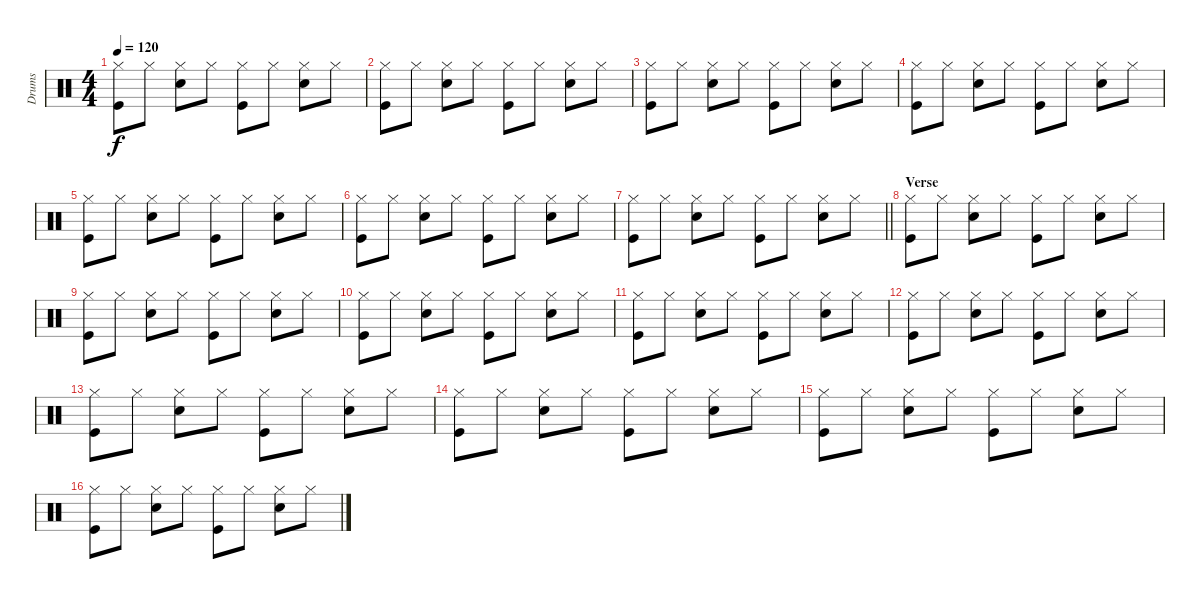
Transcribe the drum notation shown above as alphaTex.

\track ("Drums" "Drums") {instrument percussion}
\staff {score}
\articulation defaults
\ts (4 4)
\tempo 120
\clef neutral
\ks c
("Hi-Hat (closed)" "Kick (hit)").8{dy f} "Hi-Hat (closed)".8 ("Hi-Hat (closed)" "Snare (hit) 2").8 "Hi-Hat (closed)".8 ("Hi-Hat (closed)" "Kick (hit)").8 "Hi-Hat (closed)".8 ("Hi-Hat (closed)" "Snare (hit) 2").8 "Hi-Hat (closed)".8 |
("Hi-Hat (closed)" "Kick (hit)").8 "Hi-Hat (closed)".8 ("Hi-Hat (closed)" "Snare (hit) 2").8 "Hi-Hat (closed)".8 ("Hi-Hat (closed)" "Kick (hit)").8 "Hi-Hat (closed)".8 ("Hi-Hat (closed)" "Snare (hit) 2").8 "Hi-Hat (closed)".8 |
("Hi-Hat (closed)" "Kick (hit)").8 "Hi-Hat (closed)".8 ("Hi-Hat (closed)" "Snare (hit) 2").8 "Hi-Hat (closed)".8 ("Hi-Hat (closed)" "Kick (hit)").8 "Hi-Hat (closed)".8 ("Hi-Hat (closed)" "Snare (hit) 2").8 "Hi-Hat (closed)".8 |
("Hi-Hat (closed)" "Kick (hit)").8 "Hi-Hat (closed)".8 ("Hi-Hat (closed)" "Snare (hit) 2").8 "Hi-Hat (closed)".8 ("Hi-Hat (closed)" "Kick (hit)").8 "Hi-Hat (closed)".8 ("Hi-Hat (closed)" "Snare (hit) 2").8 "Hi-Hat (closed)".8 |
("Hi-Hat (closed)" "Kick (hit)").8 "Hi-Hat (closed)".8 ("Hi-Hat (closed)" "Snare (hit) 2").8 "Hi-Hat (closed)".8 ("Hi-Hat (closed)" "Kick (hit)").8 "Hi-Hat (closed)".8 ("Hi-Hat (closed)" "Snare (hit) 2").8 "Hi-Hat (closed)".8 |
("Hi-Hat (closed)" "Kick (hit)").8 "Hi-Hat (closed)".8 ("Hi-Hat (closed)" "Snare (hit) 2").8 "Hi-Hat (closed)".8 ("Hi-Hat (closed)" "Kick (hit)").8 "Hi-Hat (closed)".8 ("Hi-Hat (closed)" "Snare (hit) 2").8 "Hi-Hat (closed)".8 |
\barLineRight lightlight
("Hi-Hat (closed)" "Kick (hit)").8 "Hi-Hat (closed)".8 ("Hi-Hat (closed)" "Snare (hit) 2").8 "Hi-Hat (closed)".8 ("Hi-Hat (closed)" "Kick (hit)").8 "Hi-Hat (closed)".8 ("Hi-Hat (closed)" "Snare (hit) 2").8 "Hi-Hat (closed)".8 |
\section ("" "Verse")
("Hi-Hat (closed)" "Kick (hit)").8 "Hi-Hat (closed)".8 ("Hi-Hat (closed)" "Snare (hit) 2").8 "Hi-Hat (closed)".8 ("Hi-Hat (closed)" "Kick (hit)").8 "Hi-Hat (closed)".8 ("Hi-Hat (closed)" "Snare (hit) 2").8 "Hi-Hat (closed)".8 |
("Hi-Hat (closed)" "Kick (hit)").8 "Hi-Hat (closed)".8 ("Hi-Hat (closed)" "Snare (hit) 2").8 "Hi-Hat (closed)".8 ("Hi-Hat (closed)" "Kick (hit)").8 "Hi-Hat (closed)".8 ("Hi-Hat (closed)" "Snare (hit) 2").8 "Hi-Hat (closed)".8 |
("Hi-Hat (closed)" "Kick (hit)").8 "Hi-Hat (closed)".8 ("Hi-Hat (closed)" "Snare (hit) 2").8 "Hi-Hat (closed)".8 ("Hi-Hat (closed)" "Kick (hit)").8 "Hi-Hat (closed)".8 ("Hi-Hat (closed)" "Snare (hit) 2").8 "Hi-Hat (closed)".8 |
("Hi-Hat (closed)" "Kick (hit)").8 "Hi-Hat (closed)".8 ("Hi-Hat (closed)" "Snare (hit) 2").8 "Hi-Hat (closed)".8 ("Hi-Hat (closed)" "Kick (hit)").8 "Hi-Hat (closed)".8 ("Hi-Hat (closed)" "Snare (hit) 2").8 "Hi-Hat (closed)".8 |
("Hi-Hat (closed)" "Kick (hit)").8 "Hi-Hat (closed)".8 ("Hi-Hat (closed)" "Snare (hit) 2").8 "Hi-Hat (closed)".8 ("Hi-Hat (closed)" "Kick (hit)").8 "Hi-Hat (closed)".8 ("Hi-Hat (closed)" "Snare (hit) 2").8 "Hi-Hat (closed)".8 |
("Hi-Hat (closed)" "Kick (hit)").8 "Hi-Hat (closed)".8 ("Hi-Hat (closed)" "Snare (hit) 2").8 "Hi-Hat (closed)".8 ("Hi-Hat (closed)" "Kick (hit)").8 "Hi-Hat (closed)".8 ("Hi-Hat (closed)" "Snare (hit) 2").8 "Hi-Hat (closed)".8 |
("Hi-Hat (closed)" "Kick (hit)").8 "Hi-Hat (closed)".8 ("Hi-Hat (closed)" "Snare (hit) 2").8 "Hi-Hat (closed)".8 ("Hi-Hat (closed)" "Kick (hit)").8 "Hi-Hat (closed)".8 ("Hi-Hat (closed)" "Snare (hit) 2").8 "Hi-Hat (closed)".8 |
("Hi-Hat (closed)" "Kick (hit)").8 "Hi-Hat (closed)".8 ("Hi-Hat (closed)" "Snare (hit) 2").8 "Hi-Hat (closed)".8 ("Hi-Hat (closed)" "Kick (hit)").8 "Hi-Hat (closed)".8 ("Hi-Hat (closed)" "Snare (hit) 2").8 "Hi-Hat (closed)".8 |
("Hi-Hat (closed)" "Kick (hit)").8 "Hi-Hat (closed)".8 ("Hi-Hat (closed)" "Snare (hit) 2").8 "Hi-Hat (closed)".8 ("Hi-Hat (closed)" "Kick (hit)").8 "Hi-Hat (closed)".8 ("Hi-Hat (closed)" "Snare (hit) 2").8 "Hi-Hat (closed)".8
